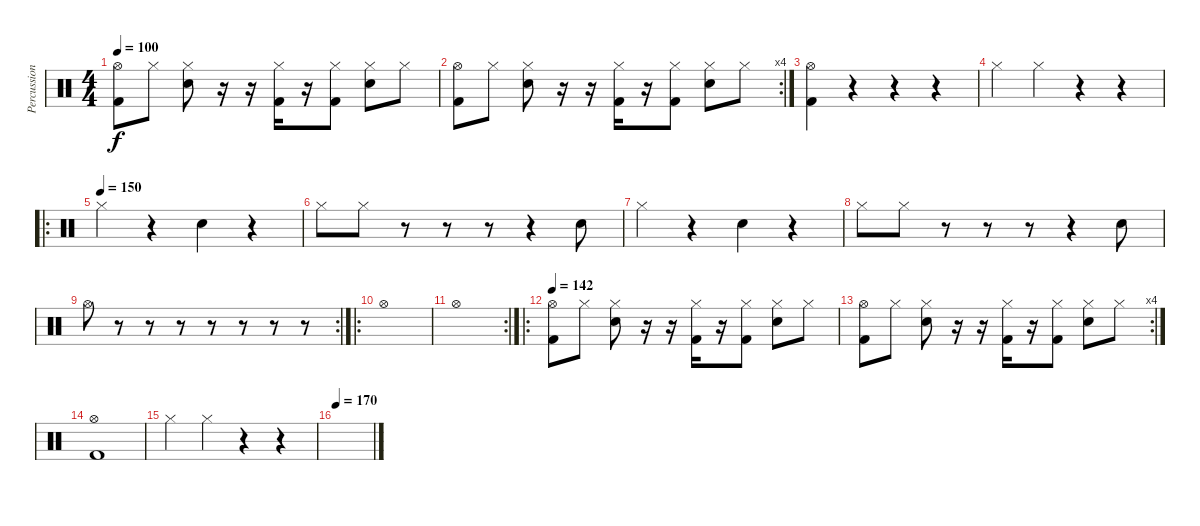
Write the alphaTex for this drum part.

\track ("Percussions" "Percussion") {instrument percussion}
\staff {score}
\articulation defaults
\ts (4 4)
\tempo 100
\tempo 95
\tempo 142
\tempo 100
\clef neutral
\ks c
("Hi-Hat (open)" "Kick (hit) 2").8{dy f} "Hi-Hat (closed)".8 ("Hi-Hat (closed)" "Snare (hit) 2").8 r.16 r.16 ("Hi-Hat (closed)" "Kick (hit) 2").16 r.16 ("Hi-Hat (closed)" "Kick (hit) 2").8 ("Hi-Hat (closed)" "Snare (hit) 2").8 "Hi-Hat (closed)".8 |
\rc 4
("Hi-Hat (open)" "Kick (hit) 2").8 "Hi-Hat (closed)".8 ("Hi-Hat (closed)" "Snare (hit) 2").8 r.16 r.16 ("Hi-Hat (closed)" "Kick (hit) 2").16 r.16 ("Hi-Hat (closed)" "Kick (hit) 2").8 ("Hi-Hat (closed)" "Snare (hit) 2").8 "Hi-Hat (closed)".8 |
("Hi-Hat (open)" "Kick (hit) 2").4 r.4 r.4 r.4 |
"Hi-Hat (closed)".4 "Hi-Hat (closed)".4 r.4 r.4 |
\ro
\tempo (150)
"Hi-Hat (closed)".4 r.4 "Snare (hit) 2".4 r.4 |
"Hi-Hat (closed)".8 "Hi-Hat (closed)".8 r.8 r.8 r.8 r.4 "Snare (hit) 2".8 |
"Hi-Hat (closed)".4 r.4 "Snare (hit) 2".4 r.4 |
"Hi-Hat (closed)".8 "Hi-Hat (closed)".8 r.8 r.8 r.8 r.4 "Snare (hit) 2".8 |
\rc 2 "Hi-Hat (open)".8
r.8 r.8 r.8 r.8 r.8 r.8 r.8 |
\ro "Hi-Hat (open)".1
|
\rc 2 "Hi-Hat (open)".1
|
\ro
\tempo 90
\tempo 142
("Hi-Hat (open)" "Kick (hit) 2").8 "Hi-Hat (closed)".8 ("Hi-Hat (closed)" "Snare (hit) 2").8 r.16 r.16 ("Hi-Hat (closed)" "Kick (hit) 2").16 r.16 ("Hi-Hat (closed)" "Kick (hit) 2").8 ("Hi-Hat (closed)" "Snare (hit) 2").8 "Hi-Hat (closed)".8 |
\rc 4
("Hi-Hat (open)" "Kick (hit) 2").8 "Hi-Hat (closed)".8 ("Hi-Hat (closed)" "Snare (hit) 2").8 r.16 r.16 ("Hi-Hat (closed)" "Kick (hit) 2").16 r.16 ("Hi-Hat (closed)" "Kick (hit) 2").8 ("Hi-Hat (closed)" "Snare (hit) 2").8 "Hi-Hat (closed)".8 |
("Hi-Hat (open)" "Kick (hit) 2").1 |
"Hi-Hat (closed)".4 "Hi-Hat (closed)".4 r.4 r.4 |
\tempo 170
